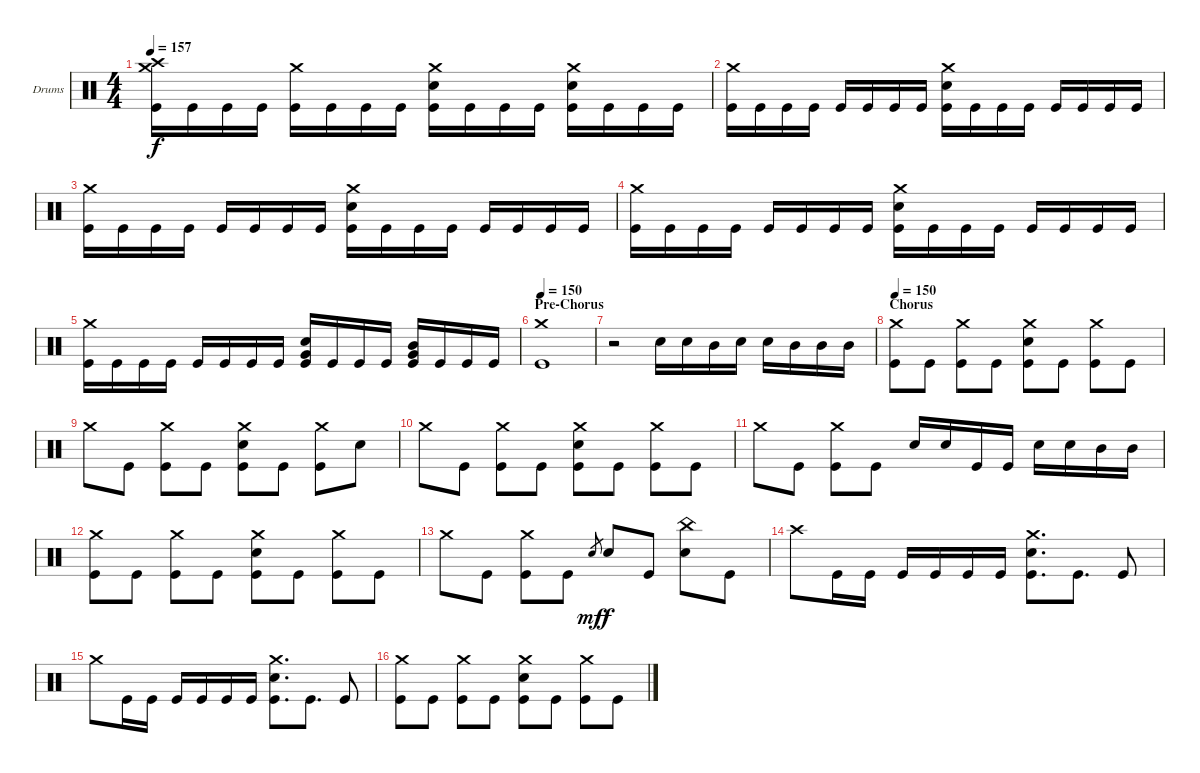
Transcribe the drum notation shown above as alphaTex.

\bracketExtendMode groupsimilarinstruments
\firstSystemTrackNameOrientation horizontal
\otherSystemsTrackNameOrientation horizontal
\track ("Drumkit" "Drums") {instrument percussion}
\staff {score}
\articulation defaults
\ts (4 4)
\tempo 157
\clef neutral
\ks c
("Crash medium (hit)" "Crash high (hit)" "Kick (hit)").16{dy f} "Kick (hit)".16 "Kick (hit)".16 "Kick (hit)".16 ("Crash medium (hit)" "Kick (hit)").16 "Kick (hit)".16 "Kick (hit)".16 "Kick (hit)".16 ("Crash medium (hit)" "Snare (hit) 2" "Kick (hit)").16 "Kick (hit)".16 "Kick (hit)".16 "Kick (hit)".16 ("Crash medium (hit)" "Snare (hit) 2" "Kick (hit)").16 "Kick (hit)".16 "Kick (hit)".16 "Kick (hit)".16 |
("Crash medium (hit)" "Kick (hit)").16 "Kick (hit)".16 "Kick (hit)".16 "Kick (hit)".16 "Kick (hit)".16 "Kick (hit)".16 "Kick (hit)".16 "Kick (hit)".16 ("Crash medium (hit)" "Snare (hit) 2" "Kick (hit)").16 "Kick (hit)".16 "Kick (hit)".16 "Kick (hit)".16 "Kick (hit)".16 "Kick (hit)".16 "Kick (hit)".16 "Kick (hit)".16 |
("Crash medium (hit)" "Kick (hit)").16 "Kick (hit)".16 "Kick (hit)".16 "Kick (hit)".16 "Kick (hit)".16 "Kick (hit)".16 "Kick (hit)".16 "Kick (hit)".16 ("Crash medium (hit)" "Snare (hit) 2" "Kick (hit)").16 "Kick (hit)".16 "Kick (hit)".16 "Kick (hit)".16 "Kick (hit)".16 "Kick (hit)".16 "Kick (hit)".16 "Kick (hit)".16 |
("Crash medium (hit)" "Kick (hit)").16 "Kick (hit)".16 "Kick (hit)".16 "Kick (hit)".16 "Kick (hit)".16 "Kick (hit)".16 "Kick (hit)".16 "Kick (hit)".16 ("Crash medium (hit)" "Snare (hit) 2" "Kick (hit)").16 "Kick (hit)".16 "Kick (hit)".16 "Kick (hit)".16 "Kick (hit)".16 "Kick (hit)".16 "Kick (hit)".16 "Kick (hit)".16 |
("Crash medium (hit)" "Kick (hit)").16 "Kick (hit)".16 "Kick (hit)".16 "Kick (hit)".16 "Kick (hit)".16 "Kick (hit)".16 "Kick (hit)".16 "Kick (hit)".16 ("Very Low Tom (hit)" "Snare (hit) 2" "Kick (hit)").16 "Kick (hit)".16 "Kick (hit)".16 "Kick (hit)".16 ("Mid Tom (hit)" "Very Low Tom (hit)" "Kick (hit)").16 "Kick (hit)".16 "Kick (hit)".16 "Kick (hit)".16 |
\section ("" "Pre-Chorus")
\tempo 150
("Crash medium (hit)" "Kick (hit)").1 |
r.2 "Snare (hit) 2".16 "Snare (hit) 2".16 "Mid Tom (hit)".16 "Snare (hit) 2".16 "Snare (hit) 2".16 "Mid Tom (hit)".16 "Mid Tom (hit)".16 "Mid Tom (hit)".16 |
\section ("" "Chorus")
\tempo 150
("Crash medium (hit)" "Kick (hit)").8 "Kick (hit)".8 ("Crash medium (hit)" "Kick (hit)").8 "Kick (hit)".8 ("Crash medium (hit)" "Snare (hit) 2" "Kick (hit)").8 "Kick (hit)".8 ("Crash medium (hit)" "Kick (hit)").8 "Kick (hit)".8 |
"Crash medium (hit)".8 "Kick (hit)".8 ("Crash medium (hit)" "Kick (hit)").8 "Kick (hit)".8 ("Crash medium (hit)" "Snare (hit) 2" "Kick (hit)").8 "Kick (hit)".8 ("Crash medium (hit)" "Kick (hit)").8 "Snare (hit) 2".8 |
"Crash medium (hit)".8 "Kick (hit)".8 ("Crash medium (hit)" "Kick (hit)").8 "Kick (hit)".8 ("Crash medium (hit)" "Snare (hit) 2" "Kick (hit)").8 "Kick (hit)".8 ("Crash medium (hit)" "Kick (hit)").8 "Kick (hit)".8 |
"Crash medium (hit)".8 "Kick (hit)".8 ("Crash medium (hit)" "Kick (hit)").8 "Kick (hit)".8 "Snare (hit) 2".16 "Snare (hit) 2".16 "Kick (hit)".16 "Kick (hit)".16 "Snare (hit) 2".16 "Snare (hit) 2".16 "Mid Tom (hit)".16 "Mid Tom (hit)".16 |
("Crash medium (hit)" "Kick (hit)").8 "Kick (hit)".8 ("Crash medium (hit)" "Kick (hit)").8 "Kick (hit)".8 ("Crash medium (hit)" "Snare (hit) 2" "Kick (hit)").8 "Kick (hit)".8 ("Crash medium (hit)" "Kick (hit)").8 "Kick (hit)".8 |
"Crash medium (hit)".8 "Kick (hit)".8 ("Crash medium (hit)" "Kick (hit)").8 "Kick (hit)".8 "Snare (hit) 2".8{gr dy mf} "Snare (hit) 2".8{dy f} "Kick (hit)".8 ("China (hit)" "Snare (hit) 2").8 "Kick (hit)".8 |
"Crash high (hit)".8 "Kick (hit)".16 "Kick (hit)".16 "Kick (hit)".16 "Kick (hit)".16 "Kick (hit)".16 "Kick (hit)".16 ("Crash medium (hit)" "Snare (hit) 2" "Kick (hit)").8{d} "Kick (hit)".8{d} "Kick (hit)".8 |
"Crash medium (hit)".8 "Kick (hit)".16 "Kick (hit)".16 "Kick (hit)".16 "Kick (hit)".16 "Kick (hit)".16 "Kick (hit)".16 ("Crash medium (hit)" "Snare (hit) 2" "Kick (hit)").8{d} "Kick (hit)".8{d} "Kick (hit)".8 |
("Crash medium (hit)" "Kick (hit)").8 "Kick (hit)".8 ("Crash medium (hit)" "Kick (hit)").8 "Kick (hit)".8 ("Crash medium (hit)" "Snare (hit) 2" "Kick (hit)").8 "Kick (hit)".8 ("Crash medium (hit)" "Kick (hit)").8 "Kick (hit)".8
